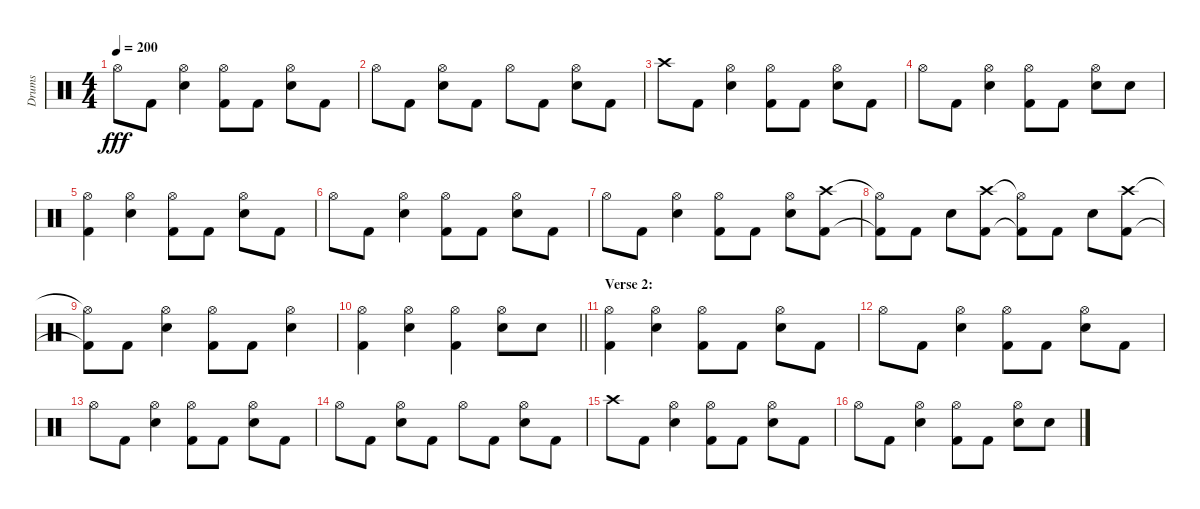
\track ("Drums" "Drums") {instrument percussion}
\staff {score}
\articulation defaults
\ts (4 4)
\tempo 200
\clef neutral
\ks c "Hi-Hat (open)".8{dy fff} "Kick (hit) 2".8
("Hi-Hat (open)" "Electric Snare (hit)").4 ("Hi-Hat (open)" "Kick (hit) 2").8 "Kick (hit) 2".8 ("Hi-Hat (open)" "Electric Snare (hit)").8 "Kick (hit) 2".8 |
"Hi-Hat (open)".8 "Kick (hit) 2".8 ("Hi-Hat (open)" "Electric Snare (hit)").8 "Kick (hit) 2".8 "Hi-Hat (open)".8 "Kick (hit) 2".8 ("Hi-Hat (open)" "Electric Snare (hit)").8 "Kick (hit) 2".8 |
"Crash high (hit)".8 "Kick (hit) 2".8 ("Hi-Hat (open)" "Electric Snare (hit)").4 ("Hi-Hat (open)" "Kick (hit) 2").8 "Kick (hit) 2".8 ("Hi-Hat (open)" "Electric Snare (hit)").8 "Kick (hit) 2".8 |
"Hi-Hat (open)".8 "Kick (hit) 2".8 ("Hi-Hat (open)" "Electric Snare (hit)").4 ("Hi-Hat (open)" "Kick (hit) 2").8 "Kick (hit) 2".8 ("Hi-Hat (open)" "Electric Snare (hit)").8 "Electric Snare (hit)".8 |
("Hi-Hat (open)" "Kick (hit) 2").4 ("Hi-Hat (open)" "Electric Snare (hit)").4 ("Hi-Hat (open)" "Kick (hit) 2").8 "Kick (hit) 2".8 ("Hi-Hat (open)" "Electric Snare (hit)").8 "Kick (hit) 2".8 |
"Hi-Hat (open)".8 "Kick (hit) 2".8 ("Hi-Hat (open)" "Electric Snare (hit)").4 ("Hi-Hat (open)" "Kick (hit) 2").8 "Kick (hit) 2".8 ("Hi-Hat (open)" "Electric Snare (hit)").8 "Kick (hit) 2".8 |
"Hi-Hat (open)".8 "Kick (hit) 2".8 ("Hi-Hat (open)" "Electric Snare (hit)").4 ("Hi-Hat (open)" "Kick (hit) 2").8 "Kick (hit) 2".8 ("Hi-Hat (open)" "Electric Snare (hit)").8 ("Crash high (hit)" "Kick (hit) 2").8 |
("Hi-Hat (open)"{t} "Kick (hit) 2"{t}).8 "Kick (hit) 2".8 "Electric Snare (hit)".8 ("Crash high (hit)" "Kick (hit) 2").8 ("Hi-Hat (open)"{t} "Kick (hit) 2"{t}).8 "Kick (hit) 2".8 "Electric Snare (hit)".8 ("Crash high (hit)" "Kick (hit) 2").8 |
("Hi-Hat (open)"{t} "Kick (hit) 2"{t}).8 "Kick (hit) 2".8 ("Hi-Hat (open)" "Electric Snare (hit)").4 ("Hi-Hat (open)" "Kick (hit) 2").8 "Kick (hit) 2".8 ("Hi-Hat (open)" "Electric Snare (hit)").4 |
\barLineRight lightlight
("Hi-Hat (open)" "Kick (hit) 2").4 ("Hi-Hat (open)" "Electric Snare (hit)").4 ("Hi-Hat (open)" "Kick (hit) 2").4 ("Hi-Hat (open)" "Electric Snare (hit)").8 "Electric Snare (hit)".8 |
\section ("" "Verse 2:")
("Hi-Hat (open)" "Kick (hit) 2").4 ("Hi-Hat (open)" "Electric Snare (hit)").4 ("Hi-Hat (open)" "Kick (hit) 2").8 "Kick (hit) 2".8 ("Hi-Hat (open)" "Electric Snare (hit)").8 "Kick (hit) 2".8 |
"Hi-Hat (open)".8 "Kick (hit) 2".8 ("Hi-Hat (open)" "Electric Snare (hit)").4 ("Hi-Hat (open)" "Kick (hit) 2").8 "Kick (hit) 2".8 ("Hi-Hat (open)" "Electric Snare (hit)").8 "Kick (hit) 2".8 |
"Hi-Hat (open)".8 "Kick (hit) 2".8 ("Hi-Hat (open)" "Electric Snare (hit)").4 ("Hi-Hat (open)" "Kick (hit) 2").8 "Kick (hit) 2".8 ("Hi-Hat (open)" "Electric Snare (hit)").8 "Kick (hit) 2".8 |
"Hi-Hat (open)".8 "Kick (hit) 2".8 ("Hi-Hat (open)" "Electric Snare (hit)").8 "Kick (hit) 2".8 "Hi-Hat (open)".8 "Kick (hit) 2".8 ("Hi-Hat (open)" "Electric Snare (hit)").8 "Kick (hit) 2".8 |
"Crash high (hit)".8 "Kick (hit) 2".8 ("Hi-Hat (open)" "Electric Snare (hit)").4 ("Hi-Hat (open)" "Kick (hit) 2").8 "Kick (hit) 2".8 ("Hi-Hat (open)" "Electric Snare (hit)").8 "Kick (hit) 2".8 |
"Hi-Hat (open)".8 "Kick (hit) 2".8 ("Hi-Hat (open)" "Electric Snare (hit)").4 ("Hi-Hat (open)" "Kick (hit) 2").8 "Kick (hit) 2".8 ("Hi-Hat (open)" "Electric Snare (hit)").8 "Electric Snare (hit)".8
